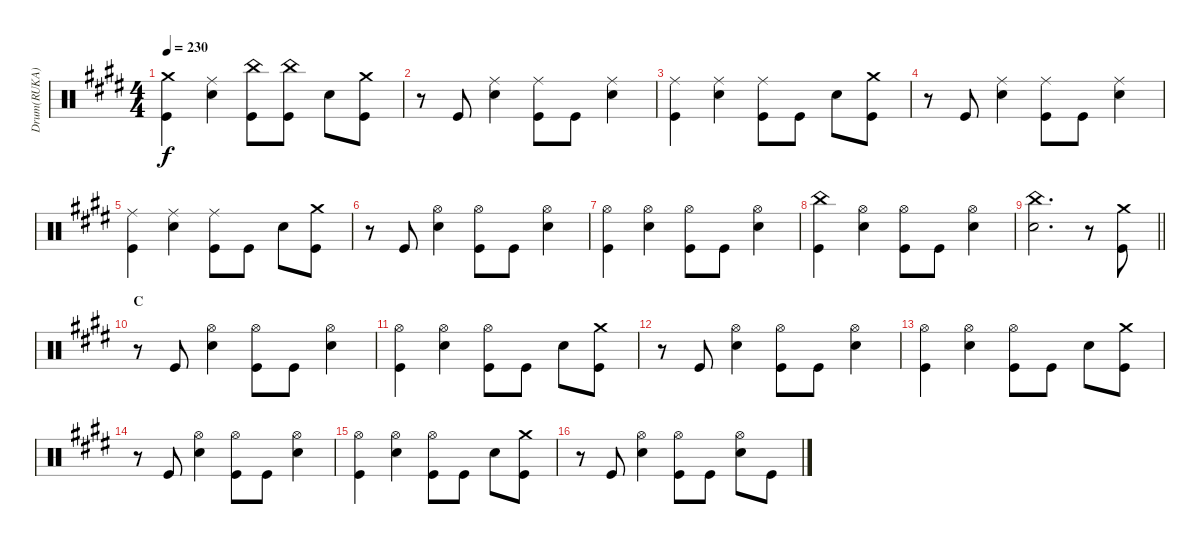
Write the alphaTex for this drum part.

\track ("Drum(RUKA)" "Drum(RUKA)") {instrument percussion}
\staff {score}
\articulation defaults
\ts (4 4)
\tempo 230
\clef neutral
\ks e
("Crash medium (hit)" "Kick (hit)").4{dy f} ("Ride (middle)" "Electric Snare (hit)").4 ("China (hit)" "Kick (hit)").8 ("China (hit)" "Kick (hit)").8 "Electric Snare (hit)".8 ("Crash medium (hit)" "Kick (hit)").8 |
r.8 "Kick (hit)".8 ("Ride (middle)" "Electric Snare (hit)").4 ("Ride (middle)" "Kick (hit)").8 "Kick (hit)".8 ("Ride (middle)" "Electric Snare (hit)").4 |
("Ride (middle)" "Kick (hit)").4 ("Ride (middle)" "Electric Snare (hit)").4 ("Ride (middle)" "Kick (hit)").8 "Kick (hit)".8 "Electric Snare (hit)".8 ("Crash medium (hit)" "Kick (hit)").8 |
r.8 "Kick (hit)".8 ("Ride (middle)" "Electric Snare (hit)").4 ("Ride (middle)" "Kick (hit)").8 "Kick (hit)".8 ("Ride (middle)" "Electric Snare (hit)").4 |
("Ride (middle)" "Kick (hit)").4 ("Ride (middle)" "Electric Snare (hit)").4 ("Ride (middle)" "Kick (hit)").8 "Kick (hit)".8 "Electric Snare (hit)".8 ("Crash medium (hit)" "Kick (hit)").8 |
r.8 "Kick (hit)".8 ("Hi-Hat (open)" "Electric Snare (hit)").4 ("Hi-Hat (open)" "Kick (hit)").8 "Kick (hit)".8 ("Hi-Hat (open)" "Electric Snare (hit)").4 |
("Hi-Hat (open)" "Kick (hit)").4 ("Hi-Hat (open)" "Electric Snare (hit)").4 ("Hi-Hat (open)" "Kick (hit)").8 "Kick (hit)".8 ("Hi-Hat (open)" "Electric Snare (hit)").4 |
("China (hit)" "Kick (hit)").4 ("Hi-Hat (open)" "Electric Snare (hit)").4 ("Hi-Hat (open)" "Kick (hit)").8 "Kick (hit)".8 ("Hi-Hat (open)" "Electric Snare (hit)").4 |
\barLineRight lightlight
("China (hit)" "Electric Snare (hit)").2{d} r.8 ("Crash medium (hit)" "Kick (hit)").8 |
\section ("" "C")
r.8 "Kick (hit)".8 ("Hi-Hat (open)" "Electric Snare (hit)").4 ("Hi-Hat (open)" "Kick (hit)").8 "Kick (hit)".8 ("Hi-Hat (open)" "Electric Snare (hit)").4 |
("Hi-Hat (open)" "Kick (hit)").4 ("Hi-Hat (open)" "Electric Snare (hit)").4 ("Hi-Hat (open)" "Kick (hit)").8 "Kick (hit)".8 "Electric Snare (hit)".8 ("Crash medium (hit)" "Kick (hit)").8 |
r.8 "Kick (hit)".8 ("Hi-Hat (open)" "Electric Snare (hit)").4 ("Hi-Hat (open)" "Kick (hit)").8 "Kick (hit)".8 ("Hi-Hat (open)" "Electric Snare (hit)").4 |
("Hi-Hat (open)" "Kick (hit)").4 ("Hi-Hat (open)" "Electric Snare (hit)").4 ("Hi-Hat (open)" "Kick (hit)").8 "Kick (hit)".8 "Electric Snare (hit)".8 ("Crash medium (hit)" "Kick (hit)").8 |
r.8 "Kick (hit)".8 ("Hi-Hat (open)" "Electric Snare (hit)").4 ("Hi-Hat (open)" "Kick (hit)").8 "Kick (hit)".8 ("Hi-Hat (open)" "Electric Snare (hit)").4 |
("Hi-Hat (open)" "Kick (hit)").4 ("Hi-Hat (open)" "Electric Snare (hit)").4 ("Hi-Hat (open)" "Kick (hit)").8 "Kick (hit)".8 "Electric Snare (hit)".8 ("Crash medium (hit)" "Kick (hit)").8 |
r.8 "Kick (hit)".8 ("Hi-Hat (open)" "Electric Snare (hit)").4 ("Hi-Hat (open)" "Kick (hit)").8 "Kick (hit)".8 ("Hi-Hat (open)" "Electric Snare (hit)").8 "Kick (hit)".8
